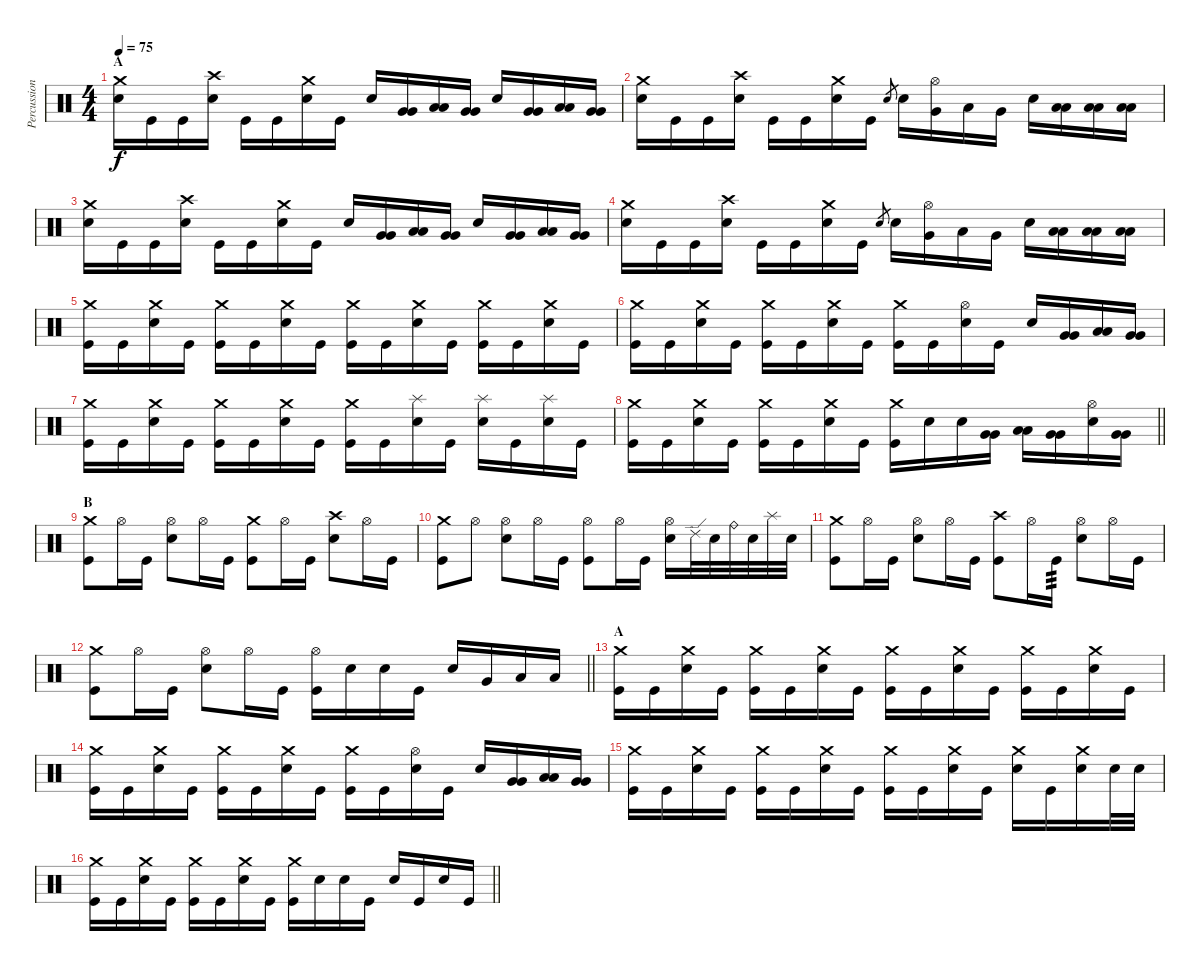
\track ("Percussion" "Percussion") {instrument percussion}
\staff {score}
\articulation defaults
\ts (4 4)
\section ("" "A")
\tempo 75
\clef neutral
\ks c
("Snare (hit) 2" "Crash medium (hit)").16{dy f} "Kick (hit)".16 "Kick (hit)".16 ("Snare (hit) 2" "Crash high (hit)").16 "Kick (hit)".16 "Kick (hit)".16 ("Snare (hit) 2" "Crash medium (hit)").16 "Kick (hit)".16 "Snare (hit) 2".16 ("Very Low Tom (hit)" "Very Low Tom (hit)").16 ("Low Floor Tom (hit)" "Low Floor Tom (hit)").16 ("Very Low Tom (hit)" "Very Low Tom (hit)").16 "Snare (hit) 2".16 ("Very Low Tom (hit)" "Very Low Tom (hit)").16 ("Low Floor Tom (hit)" "Low Floor Tom (hit)").16 ("Very Low Tom (hit)" "Very Low Tom (hit)").16 |
("Snare (hit) 2" "Crash medium (hit)").16 "Kick (hit)".16 "Kick (hit)".16 ("Snare (hit) 2" "Crash high (hit)").16 "Kick (hit)".16 "Kick (hit)".16 ("Snare (hit) 2" "Crash medium (hit)").16 "Kick (hit)".16 "Snare (hit) 2".8{gr} "Snare (hit) 2".16 ("Very Low Tom (hit)" "Hi-Hat (open)").16 "Low Floor Tom (hit)".16 "Very Low Tom (hit)".16 "Snare (hit) 2".16 ("Low Floor Tom (hit)" "Low Floor Tom (hit)").16 ("Low Floor Tom (hit)" "Low Floor Tom (hit)").16 ("Low Floor Tom (hit)" "Low Floor Tom (hit)").16 |
("Snare (hit) 2" "Crash medium (hit)").16 "Kick (hit)".16 "Kick (hit)".16 ("Snare (hit) 2" "Crash high (hit)").16 "Kick (hit)".16 "Kick (hit)".16 ("Snare (hit) 2" "Crash medium (hit)").16 "Kick (hit)".16 "Snare (hit) 2".16 ("Very Low Tom (hit)" "Very Low Tom (hit)").16 ("Low Floor Tom (hit)" "Low Floor Tom (hit)").16 ("Very Low Tom (hit)" "Very Low Tom (hit)").16 "Snare (hit) 2".16 ("Very Low Tom (hit)" "Very Low Tom (hit)").16 ("Low Floor Tom (hit)" "Low Floor Tom (hit)").16 ("Very Low Tom (hit)" "Very Low Tom (hit)").16 |
("Snare (hit) 2" "Crash medium (hit)").16 "Kick (hit)".16 "Kick (hit)".16 ("Snare (hit) 2" "Crash high (hit)").16 "Kick (hit)".16 "Kick (hit)".16 ("Snare (hit) 2" "Crash medium (hit)").16 "Kick (hit)".16 "Snare (hit) 2".8{gr} "Snare (hit) 2".16 ("Very Low Tom (hit)" "Hi-Hat (open)").16 "Low Floor Tom (hit)".16 "Very Low Tom (hit)".16 "Snare (hit) 2".16 ("Low Floor Tom (hit)" "Low Floor Tom (hit)").16 ("Low Floor Tom (hit)" "Low Floor Tom (hit)").16 ("Low Floor Tom (hit)" "Low Floor Tom (hit)").16 |
("Kick (hit)" "Crash medium (hit)").16 "Kick (hit)".16 ("Snare (hit) 2" "Crash medium (hit)").16 "Kick (hit)".16 ("Kick (hit)" "Crash medium (hit)").16 "Kick (hit)".16 ("Snare (hit) 2" "Crash medium (hit)").16 "Kick (hit)".16 ("Kick (hit)" "Crash medium (hit)").16 "Kick (hit)".16 ("Snare (hit) 2" "Crash medium (hit)").16 "Kick (hit)".16 ("Kick (hit)" "Crash medium (hit)").16 "Kick (hit)".16 ("Snare (hit) 2" "Crash medium (hit)").16 "Kick (hit)".16 |
("Kick (hit)" "Crash medium (hit)").16 "Kick (hit)".16 ("Snare (hit) 2" "Crash medium (hit)").16 "Kick (hit)".16 ("Kick (hit)" "Crash medium (hit)").16 "Kick (hit)".16 ("Snare (hit) 2" "Crash medium (hit)").16 "Kick (hit)".16 ("Kick (hit)" "Crash medium (hit)").16 "Kick (hit)".16 ("Snare (hit) 2" "Hi-Hat (open)").16 "Kick (hit)".16 "Snare (hit) 2".16 ("Very Low Tom (hit)" "Very Low Tom (hit)").16 ("Low Floor Tom (hit)" "Low Floor Tom (hit)").16 ("Very Low Tom (hit)" "Very Low Tom (hit)").16 |
("Kick (hit)" "Crash medium (hit)").16 "Kick (hit)".16 ("Snare (hit) 2" "Crash medium (hit)").16 "Kick (hit)".16 ("Kick (hit)" "Crash medium (hit)").16 "Kick (hit)".16 ("Snare (hit) 2" "Crash medium (hit)").16 "Kick (hit)".16 ("Kick (hit)" "Crash medium (hit)").16 "Kick (hit)".16 ("Snare (hit) 2" "Splash (hit)").16 "Kick (hit)".16 ("Snare (hit) 2" "Splash (hit)").16 "Kick (hit)".16 ("Snare (hit) 2" "Splash (hit)").16 "Kick (hit)".16 |
\barLineRight lightlight
("Kick (hit)" "Crash medium (hit)").16 "Kick (hit)".16 ("Snare (hit) 2" "Crash medium (hit)").16 "Kick (hit)".16 ("Kick (hit)" "Crash medium (hit)").16 "Kick (hit)".16 ("Snare (hit) 2" "Crash medium (hit)").16 "Kick (hit)".16 ("Kick (hit)" "Crash medium (hit)").16 "Snare (hit) 2".16 "Snare (hit) 2".16 ("Very Low Tom (hit)" "Very Low Tom (hit)").16 ("Low Floor Tom (hit)" "Low Floor Tom (hit)").16 ("Very Low Tom (hit)" "Very Low Tom (hit)").16 ("Snare (hit) 2" "Hi-Hat (open)").16 ("Very Low Tom (hit)" "Very Low Tom (hit)").16 |
\section ("" "B")
("Kick (hit)" "Crash medium (hit)").8 "Hi-Hat (open)".16 "Kick (hit)".16 ("Snare (hit) 2" "Hi-Hat (open)").8 "Hi-Hat (open)".16 "Kick (hit)".16 ("Kick (hit)" "Crash medium (hit)").8 "Hi-Hat (open)".16 "Kick (hit)".16 ("Snare (hit) 2" "Crash high (hit)").8 "Hi-Hat (open)".16 "Kick (hit)".16 |
("Kick (hit)" "Crash medium (hit)").8 "Hi-Hat (open)".8 ("Snare (hit) 2" "Hi-Hat (open)").8 "Hi-Hat (open)".16 "Kick (hit)".16 ("Kick (hit)" "Hi-Hat (open)").8 "Hi-Hat (open)".16 "Kick (hit)".16 ("Snare (hit) 2" "Hi-Hat (open)").16 "Ride (edge) 2".32 "Snare (hit) 2".32 "Ride (bell)".32 "Snare (hit) 2".32 "Splash (hit)".32 "Snare (hit) 2".32 |
("Kick (hit)" "Crash medium (hit)").8 "Hi-Hat (open)".16 "Kick (hit)".16 ("Snare (hit) 2" "Hi-Hat (open)").8 "Hi-Hat (open)".16 "Kick (hit)".16 ("Kick (hit)" "Crash high (hit)").8 "Hi-Hat (open)".16 "Kick (hit)".16{tp 3} ("Snare (hit) 2" "Hi-Hat (open)").8 "Hi-Hat (open)".16 "Kick (hit)".16 |
\barLineRight lightlight
("Kick (hit)" "Crash medium (hit)").8 "Hi-Hat (open)".16 "Kick (hit)".16 ("Snare (hit) 2" "Hi-Hat (open)").8 "Hi-Hat (open)".16 "Kick (hit)".16 ("Kick (hit)" "Hi-Hat (open)").16 "Snare (hit) 2".16 "Snare (hit) 2".16 "Kick (hit)".16 "Snare (hit) 2".16 "Very Low Tom (hit)".16 "Low Floor Tom (hit)".16 "Low Floor Tom (hit)".16 |
\section ("" "A")
("Kick (hit)" "Crash medium (hit)").16 "Kick (hit)".16 ("Snare (hit) 2" "Crash medium (hit)").16 "Kick (hit)".16 ("Kick (hit)" "Crash medium (hit)").16 "Kick (hit)".16 ("Snare (hit) 2" "Crash medium (hit)").16 "Kick (hit)".16 ("Kick (hit)" "Crash medium (hit)").16 "Kick (hit)".16 ("Snare (hit) 2" "Crash medium (hit)").16 "Kick (hit)".16 ("Kick (hit)" "Crash medium (hit)").16 "Kick (hit)".16 ("Snare (hit) 2" "Crash medium (hit)").16 "Kick (hit)".16 |
("Kick (hit)" "Crash medium (hit)").16 "Kick (hit)".16 ("Snare (hit) 2" "Crash medium (hit)").16 "Kick (hit)".16 ("Kick (hit)" "Crash medium (hit)").16 "Kick (hit)".16 ("Snare (hit) 2" "Crash medium (hit)").16 "Kick (hit)".16 ("Kick (hit)" "Crash medium (hit)").16 "Kick (hit)".16 ("Snare (hit) 2" "Hi-Hat (open)").16 "Kick (hit)".16 "Snare (hit) 2".16 ("Very Low Tom (hit)" "Very Low Tom (hit)").16 ("Low Floor Tom (hit)" "Low Floor Tom (hit)").16 ("Very Low Tom (hit)" "Very Low Tom (hit)").16 |
("Kick (hit)" "Crash medium (hit)").16 "Kick (hit)".16 ("Snare (hit) 2" "Crash medium (hit)").16 "Kick (hit)".16 ("Kick (hit)" "Crash medium (hit)").16 "Kick (hit)".16 ("Snare (hit) 2" "Crash medium (hit)").16 "Kick (hit)".16 ("Kick (hit)" "Crash medium (hit)").16 "Kick (hit)".16 ("Snare (hit) 2" "Crash medium (hit)").16 "Kick (hit)".16 ("Snare (hit) 2" "Crash medium (hit)").16 "Kick (hit)".16 ("Snare (hit) 2" "Crash medium (hit)").16 "Snare (hit) 2".32 "Snare (hit) 2".32 |
\barLineRight lightlight
("Kick (hit)" "Crash medium (hit)").16 "Kick (hit)".16 ("Snare (hit) 2" "Crash medium (hit)").16 "Kick (hit)".16 ("Kick (hit)" "Crash medium (hit)").16 "Kick (hit)".16 ("Snare (hit) 2" "Crash medium (hit)").16 "Kick (hit)".16 ("Kick (hit)" "Crash medium (hit)").16 "Snare (hit) 2".16 "Snare (hit) 2".16 "Kick (hit)".16 "Snare (hit) 2".16 "Kick (hit)".16 "Snare (hit) 2".16 "Kick (hit)".16
